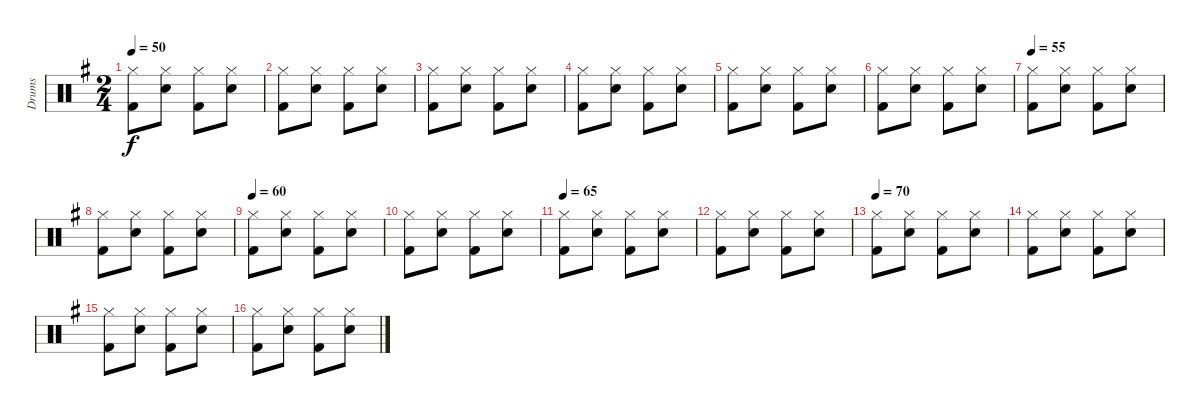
\track ("Drums" "Drums") {instrument percussion}
\staff {score}
\articulation defaults
\ts (2 4)
\tempo 50
\clef neutral
\ks g
("Hi-Hat (closed)" "Kick (hit) 2").8{dy f} ("Hi-Hat (closed)" "Electric Snare (hit)").8 ("Hi-Hat (closed)" "Kick (hit) 2").8 ("Hi-Hat (closed)" "Electric Snare (hit)").8 |
("Hi-Hat (closed)" "Kick (hit) 2").8 ("Hi-Hat (closed)" "Electric Snare (hit)").8 ("Hi-Hat (closed)" "Kick (hit) 2").8 ("Hi-Hat (closed)" "Electric Snare (hit)").8 |
("Hi-Hat (closed)" "Kick (hit) 2").8 ("Hi-Hat (closed)" "Electric Snare (hit)").8 ("Hi-Hat (closed)" "Kick (hit) 2").8 ("Hi-Hat (closed)" "Electric Snare (hit)").8 |
("Hi-Hat (closed)" "Kick (hit) 2").8 ("Hi-Hat (closed)" "Electric Snare (hit)").8 ("Hi-Hat (closed)" "Kick (hit) 2").8 ("Hi-Hat (closed)" "Electric Snare (hit)").8 |
("Hi-Hat (closed)" "Kick (hit) 2").8 ("Hi-Hat (closed)" "Electric Snare (hit)").8 ("Hi-Hat (closed)" "Kick (hit) 2").8 ("Hi-Hat (closed)" "Electric Snare (hit)").8 |
("Hi-Hat (closed)" "Kick (hit) 2").8 ("Hi-Hat (closed)" "Electric Snare (hit)").8 ("Hi-Hat (closed)" "Kick (hit) 2").8 ("Hi-Hat (closed)" "Electric Snare (hit)").8 |
\tempo 55
("Hi-Hat (closed)" "Kick (hit) 2").8 ("Hi-Hat (closed)" "Electric Snare (hit)").8 ("Hi-Hat (closed)" "Kick (hit) 2").8 ("Hi-Hat (closed)" "Electric Snare (hit)").8 |
("Hi-Hat (closed)" "Kick (hit) 2").8 ("Hi-Hat (closed)" "Electric Snare (hit)").8 ("Hi-Hat (closed)" "Kick (hit) 2").8 ("Hi-Hat (closed)" "Electric Snare (hit)").8 |
\tempo 60
("Hi-Hat (closed)" "Kick (hit) 2").8 ("Hi-Hat (closed)" "Electric Snare (hit)").8 ("Hi-Hat (closed)" "Kick (hit) 2").8 ("Hi-Hat (closed)" "Electric Snare (hit)").8 |
("Hi-Hat (closed)" "Kick (hit) 2").8 ("Hi-Hat (closed)" "Electric Snare (hit)").8 ("Hi-Hat (closed)" "Kick (hit) 2").8 ("Hi-Hat (closed)" "Electric Snare (hit)").8 |
\tempo 65
("Hi-Hat (closed)" "Kick (hit) 2").8 ("Hi-Hat (closed)" "Electric Snare (hit)").8 ("Hi-Hat (closed)" "Kick (hit) 2").8 ("Hi-Hat (closed)" "Electric Snare (hit)").8 |
("Hi-Hat (closed)" "Kick (hit) 2").8 ("Hi-Hat (closed)" "Electric Snare (hit)").8 ("Hi-Hat (closed)" "Kick (hit) 2").8 ("Hi-Hat (closed)" "Electric Snare (hit)").8 |
\tempo 70
("Hi-Hat (closed)" "Kick (hit) 2").8 ("Hi-Hat (closed)" "Electric Snare (hit)").8 ("Hi-Hat (closed)" "Kick (hit) 2").8 ("Hi-Hat (closed)" "Electric Snare (hit)").8 |
("Hi-Hat (closed)" "Kick (hit) 2").8 ("Hi-Hat (closed)" "Electric Snare (hit)").8 ("Hi-Hat (closed)" "Kick (hit) 2").8 ("Hi-Hat (closed)" "Electric Snare (hit)").8 |
("Hi-Hat (closed)" "Kick (hit) 2").8 ("Hi-Hat (closed)" "Electric Snare (hit)").8 ("Hi-Hat (closed)" "Kick (hit) 2").8 ("Hi-Hat (closed)" "Electric Snare (hit)").8 |
("Hi-Hat (closed)" "Kick (hit) 2").8 ("Hi-Hat (closed)" "Electric Snare (hit)").8 ("Hi-Hat (closed)" "Kick (hit) 2").8 ("Hi-Hat (closed)" "Electric Snare (hit)").8
